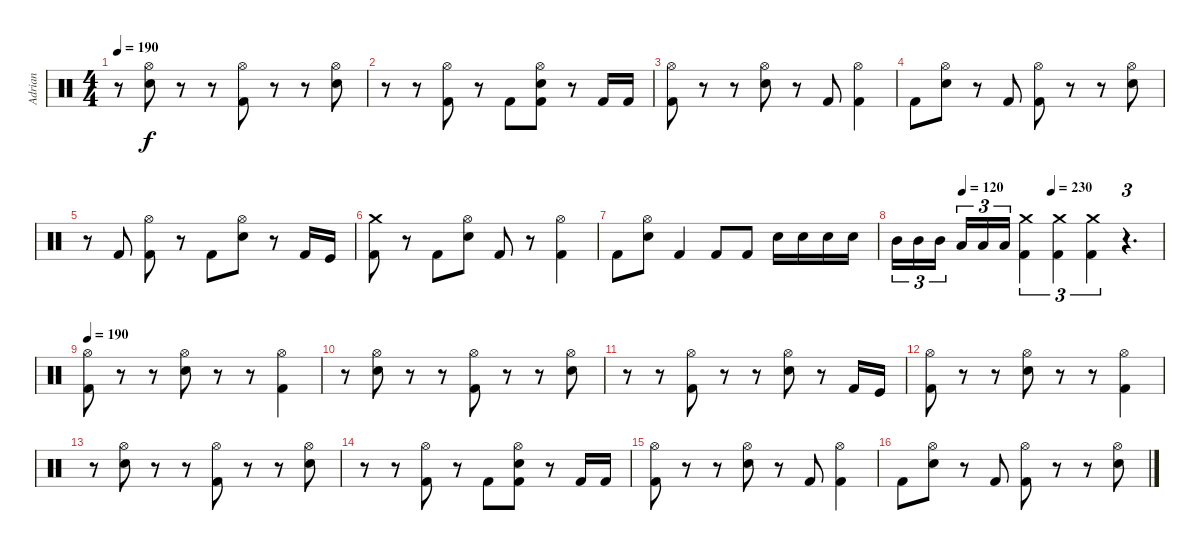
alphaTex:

\track ("Adrian" "Adrian") {instrument percussion}
\staff {score}
\articulation defaults
\ts (4 4)
\tempo 190
\clef neutral
\ks c
r.8{dy f} ("Hi-Hat (open)" "Electric Snare (hit)").8 r.8 r.8 ("Hi-Hat (open)" "Kick (hit) 2").8 r.8 r.8 ("Hi-Hat (open)" "Electric Snare (hit)").8 |
r.8 r.8 ("Hi-Hat (open)" "Kick (hit) 2").8 r.8 "Kick (hit) 2".8 ("Hi-Hat (open)" "Electric Snare (hit)" "Kick (hit) 2").8 r.8 "Kick (hit) 2".16 "Kick (hit) 2".16 |
("Hi-Hat (open)" "Kick (hit) 2").8 r.8 r.8 ("Hi-Hat (open)" "Electric Snare (hit)").8 r.8 "Kick (hit) 2".8 ("Hi-Hat (open)" "Kick (hit) 2").4 |
"Kick (hit) 2".8 ("Hi-Hat (open)" "Electric Snare (hit)").8 r.8 "Kick (hit) 2".8 ("Hi-Hat (open)" "Kick (hit) 2").8 r.8 r.8 ("Hi-Hat (open)" "Electric Snare (hit)").8 |
r.8 "Kick (hit) 2".8 ("Hi-Hat (open)" "Kick (hit) 2").8 r.8 "Kick (hit) 2".8 ("Hi-Hat (open)" "Electric Snare (hit)").8 r.8 "Kick (hit) 2".16 "Kick (hit)".16 |
("Crash medium (hit)" "Kick (hit) 2").8 r.8 "Kick (hit) 2".8 ("Hi-Hat (open)" "Electric Snare (hit)").8 "Kick (hit) 2".8 r.8 ("Hi-Hat (open)" "Kick (hit) 2").4 |
"Kick (hit) 2".8 ("Hi-Hat (open)" "Electric Snare (hit)").8 "Kick (hit) 2".4 "Kick (hit) 2".8 "Kick (hit) 2".8 "Electric Snare (hit)".16 "Electric Snare (hit)".16 "Electric Snare (hit)".16 "Electric Snare (hit)".16 |
\tempo (120 0.25)
\tempo (230 0.5833333333333334)
"Mid Tom (hit)".16{tu (3 2)} "Mid Tom (hit)".16{tu (3 2)} "Mid Tom (hit)".16{tu (3 2)} "Low Tom (hit)".16{tu (3 2)} "Low Tom (hit)".16{tu (3 2)} "Low Tom (hit)".16{tu (3 2)} ("Crash medium (hit)" "Kick (hit) 2").4{tu (3 2)} ("Crash medium (hit)" "Kick (hit) 2").4{tu (3 2)} ("Crash medium (hit)" "Kick (hit) 2").4{tu (3 2)} r.4{d tu (3 2)} |
\tempo 190
("Hi-Hat (open)" "Kick (hit) 2").8 r.8 r.8 ("Hi-Hat (open)" "Electric Snare (hit)").8 r.8 r.8 ("Hi-Hat (open)" "Kick (hit) 2").4 |
r.8 ("Hi-Hat (open)" "Electric Snare (hit)").8 r.8 r.8 ("Hi-Hat (open)" "Kick (hit) 2").8 r.8 r.8 ("Hi-Hat (open)" "Electric Snare (hit)").8 |
r.8 r.8 ("Hi-Hat (open)" "Kick (hit) 2").8 r.8 r.8 ("Hi-Hat (open)" "Electric Snare (hit)").8 r.8 "Kick (hit) 2".16 "Kick (hit)".16 |
("Hi-Hat (open)" "Kick (hit) 2").8 r.8 r.8 ("Hi-Hat (open)" "Electric Snare (hit)").8 r.8 r.8 ("Hi-Hat (open)" "Kick (hit) 2").4 |
r.8 ("Hi-Hat (open)" "Electric Snare (hit)").8 r.8 r.8 ("Hi-Hat (open)" "Kick (hit) 2").8 r.8 r.8 ("Hi-Hat (open)" "Electric Snare (hit)").8 |
r.8 r.8 ("Hi-Hat (open)" "Kick (hit) 2").8 r.8 "Kick (hit) 2".8 ("Hi-Hat (open)" "Electric Snare (hit)" "Kick (hit) 2").8 r.8 "Kick (hit) 2".16 "Kick (hit) 2".16 |
("Hi-Hat (open)" "Kick (hit) 2").8 r.8 r.8 ("Hi-Hat (open)" "Electric Snare (hit)").8 r.8 "Kick (hit) 2".8 ("Hi-Hat (open)" "Kick (hit) 2").4 |
"Kick (hit) 2".8 ("Hi-Hat (open)" "Electric Snare (hit)").8 r.8 "Kick (hit) 2".8 ("Hi-Hat (open)" "Kick (hit) 2").8 r.8 r.8 ("Hi-Hat (open)" "Electric Snare (hit)").8
